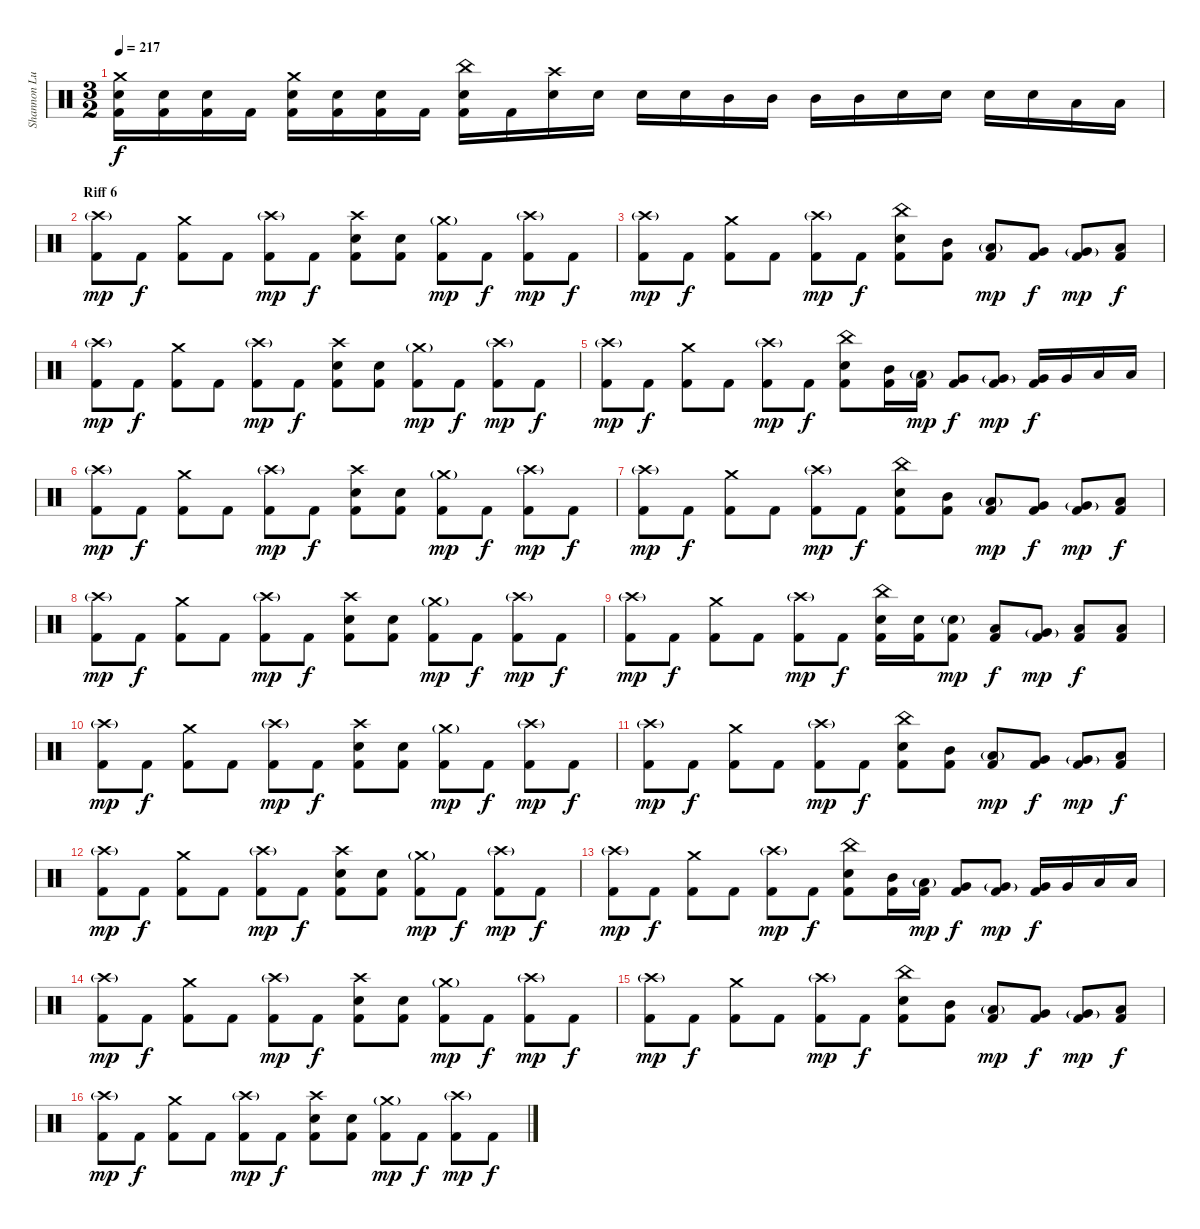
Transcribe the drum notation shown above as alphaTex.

\track ("Shannon Lucas (Drums)" "Shannon Lu") {instrument percussion}
\staff {score}
\articulation defaults
\ts (3 2)
\tempo 217
\clef neutral
\ks c
("Crash medium (hit)" "Snare (hit) 2" "Kick (hit) 2").16{dy f} ("Snare (hit) 2" "Kick (hit) 2").16 ("Snare (hit) 2" "Kick (hit) 2").16 "Kick (hit) 2".16 ("Crash medium (hit)" "Snare (hit) 2" "Kick (hit) 2").16 ("Snare (hit) 2" "Kick (hit) 2").16 ("Snare (hit) 2" "Kick (hit) 2").16 "Kick (hit) 2".16 ("China (hit)" "Snare (hit) 2" "Kick (hit) 2").16 "Kick (hit) 2".16 ("Crash high (hit)" "Snare (hit) 2").16 "Snare (hit) 2".16 "Snare (hit) 2".16 "Snare (hit) 2".16 "Mid Tom (hit)".16 "Mid Tom (hit)".16 "Mid Tom (hit)".16 "Mid Tom (hit)".16 "Snare (hit) 2".16 "Snare (hit) 2".16 "Snare (hit) 2".16 "Snare (hit) 2".16 "Low Tom (hit)".16 "Low Tom (hit)".16 |
\section ("" "Riff 6")
("Crash high (hit)"{g} "Kick (hit) 2").8{dy mp} "Kick (hit) 2".8{dy f} ("Crash medium (hit)" "Kick (hit) 2").8 "Kick (hit) 2".8 ("Crash high (hit)"{g} "Kick (hit) 2").8{dy mp} "Kick (hit) 2".8{dy f} ("Crash high (hit)" "Snare (hit) 2" "Kick (hit) 2").8 ("Snare (hit) 2" "Kick (hit) 2").8 ("Crash medium (hit)"{g} "Kick (hit) 2").8{dy mp} "Kick (hit) 2".8{dy f} ("Crash high (hit)"{g} "Kick (hit) 2").8{dy mp} "Kick (hit) 2".8{dy f} |
("Crash high (hit)"{g} "Kick (hit) 2").8{dy mp} "Kick (hit) 2".8{dy f} ("Crash medium (hit)" "Kick (hit) 2").8 "Kick (hit) 2".8 ("Crash high (hit)"{g} "Kick (hit) 2").8{dy mp} "Kick (hit) 2".8{dy f} ("China (hit)" "Snare (hit) 2" "Kick (hit) 2").8 ("Mid Tom (hit)" "Kick (hit) 2").8 ("Low Tom (hit)"{g} "Kick (hit) 2").8{dy mp} ("Very Low Tom (hit)" "Kick (hit) 2").8{dy f} ("Very Low Tom (hit)"{g} "Kick (hit) 2").8{dy mp} ("Low Floor Tom (hit)" "Kick (hit) 2").8{dy f} |
("Crash high (hit)"{g} "Kick (hit) 2").8{dy mp} "Kick (hit) 2".8{dy f} ("Crash medium (hit)" "Kick (hit) 2").8 "Kick (hit) 2".8 ("Crash high (hit)"{g} "Kick (hit) 2").8{dy mp} "Kick (hit) 2".8{dy f} ("Crash high (hit)" "Snare (hit) 2" "Kick (hit) 2").8 ("Snare (hit) 2" "Kick (hit) 2").8 ("Crash medium (hit)"{g} "Kick (hit) 2").8{dy mp} "Kick (hit) 2".8{dy f} ("Crash high (hit)"{g} "Kick (hit) 2").8{dy mp} "Kick (hit) 2".8{dy f} |
("Crash high (hit)"{g} "Kick (hit) 2").8{dy mp} "Kick (hit) 2".8{dy f} ("Crash medium (hit)" "Kick (hit) 2").8 "Kick (hit) 2".8 ("Crash high (hit)"{g} "Kick (hit) 2").8{dy mp} "Kick (hit) 2".8{dy f} ("China (hit)" "Snare (hit) 2" "Kick (hit) 2").8 ("Mid Tom (hit)" "Kick (hit) 2").16 ("Low Tom (hit)"{g} "Kick (hit) 2").16{dy mp} ("Very Low Tom (hit)" "Kick (hit) 2").8{dy f} ("Very Low Tom (hit)"{g} "Kick (hit) 2").8{dy mp} ("Very Low Tom (hit)" "Kick (hit) 2").16{dy f} "Very Low Tom (hit)".16 "Low Floor Tom (hit)".16 "Low Floor Tom (hit)".16 |
("Crash high (hit)"{g} "Kick (hit) 2").8{dy mp} "Kick (hit) 2".8{dy f} ("Crash medium (hit)" "Kick (hit) 2").8 "Kick (hit) 2".8 ("Crash high (hit)"{g} "Kick (hit) 2").8{dy mp} "Kick (hit) 2".8{dy f} ("Crash high (hit)" "Snare (hit) 2" "Kick (hit) 2").8 ("Snare (hit) 2" "Kick (hit) 2").8 ("Crash medium (hit)"{g} "Kick (hit) 2").8{dy mp} "Kick (hit) 2".8{dy f} ("Crash high (hit)"{g} "Kick (hit) 2").8{dy mp} "Kick (hit) 2".8{dy f} |
("Crash high (hit)"{g} "Kick (hit) 2").8{dy mp} "Kick (hit) 2".8{dy f} ("Crash medium (hit)" "Kick (hit) 2").8 "Kick (hit) 2".8 ("Crash high (hit)"{g} "Kick (hit) 2").8{dy mp} "Kick (hit) 2".8{dy f} ("China (hit)" "Snare (hit) 2" "Kick (hit) 2").8 ("Mid Tom (hit)" "Kick (hit) 2").8 ("Low Tom (hit)"{g} "Kick (hit) 2").8{dy mp} ("Very Low Tom (hit)" "Kick (hit) 2").8{dy f} ("Very Low Tom (hit)"{g} "Kick (hit) 2").8{dy mp} ("Low Floor Tom (hit)" "Kick (hit) 2").8{dy f} |
("Crash high (hit)"{g} "Kick (hit) 2").8{dy mp} "Kick (hit) 2".8{dy f} ("Crash medium (hit)" "Kick (hit) 2").8 "Kick (hit) 2".8 ("Crash high (hit)"{g} "Kick (hit) 2").8{dy mp} "Kick (hit) 2".8{dy f} ("Crash high (hit)" "Snare (hit) 2" "Kick (hit) 2").8 ("Snare (hit) 2" "Kick (hit) 2").8 ("Crash medium (hit)"{g} "Kick (hit) 2").8{dy mp} "Kick (hit) 2".8{dy f} ("Crash high (hit)"{g} "Kick (hit) 2").8{dy mp} "Kick (hit) 2".8{dy f} |
("Crash high (hit)"{g} "Kick (hit) 2").8{dy mp} "Kick (hit) 2".8{dy f} ("Crash medium (hit)" "Kick (hit) 2").8 "Kick (hit) 2".8 ("Crash high (hit)"{g} "Kick (hit) 2").8{dy mp} "Kick (hit) 2".8{dy f} ("China (hit)" "Snare (hit) 2" "Kick (hit) 2").16 ("Snare (hit) 2" "Kick (hit) 2").16 ("Snare (hit) 2"{g} "Kick (hit) 2").8{dy mp} ("Low Tom (hit)" "Kick (hit) 2").8{dy f} ("Very Low Tom (hit)"{g} "Kick (hit) 2").8{dy mp} ("Low Floor Tom (hit)" "Kick (hit) 2").8{dy f} ("Low Floor Tom (hit)" "Kick (hit) 2").8 |
("Crash high (hit)"{g} "Kick (hit) 2").8{dy mp} "Kick (hit) 2".8{dy f} ("Crash medium (hit)" "Kick (hit) 2").8 "Kick (hit) 2".8 ("Crash high (hit)"{g} "Kick (hit) 2").8{dy mp} "Kick (hit) 2".8{dy f} ("Crash high (hit)" "Snare (hit) 2" "Kick (hit) 2").8 ("Snare (hit) 2" "Kick (hit) 2").8 ("Crash medium (hit)"{g} "Kick (hit) 2").8{dy mp} "Kick (hit) 2".8{dy f} ("Crash high (hit)"{g} "Kick (hit) 2").8{dy mp} "Kick (hit) 2".8{dy f} |
("Crash high (hit)"{g} "Kick (hit) 2").8{dy mp} "Kick (hit) 2".8{dy f} ("Crash medium (hit)" "Kick (hit) 2").8 "Kick (hit) 2".8 ("Crash high (hit)"{g} "Kick (hit) 2").8{dy mp} "Kick (hit) 2".8{dy f} ("China (hit)" "Snare (hit) 2" "Kick (hit) 2").8 ("Mid Tom (hit)" "Kick (hit) 2").8 ("Low Tom (hit)"{g} "Kick (hit) 2").8{dy mp} ("Very Low Tom (hit)" "Kick (hit) 2").8{dy f} ("Very Low Tom (hit)"{g} "Kick (hit) 2").8{dy mp} ("Low Floor Tom (hit)" "Kick (hit) 2").8{dy f} |
("Crash high (hit)"{g} "Kick (hit) 2").8{dy mp} "Kick (hit) 2".8{dy f} ("Crash medium (hit)" "Kick (hit) 2").8 "Kick (hit) 2".8 ("Crash high (hit)"{g} "Kick (hit) 2").8{dy mp} "Kick (hit) 2".8{dy f} ("Crash high (hit)" "Snare (hit) 2" "Kick (hit) 2").8 ("Snare (hit) 2" "Kick (hit) 2").8 ("Crash medium (hit)"{g} "Kick (hit) 2").8{dy mp} "Kick (hit) 2".8{dy f} ("Crash high (hit)"{g} "Kick (hit) 2").8{dy mp} "Kick (hit) 2".8{dy f} |
("Crash high (hit)"{g} "Kick (hit) 2").8{dy mp} "Kick (hit) 2".8{dy f} ("Crash medium (hit)" "Kick (hit) 2").8 "Kick (hit) 2".8 ("Crash high (hit)"{g} "Kick (hit) 2").8{dy mp} "Kick (hit) 2".8{dy f} ("China (hit)" "Snare (hit) 2" "Kick (hit) 2").8 ("Mid Tom (hit)" "Kick (hit) 2").16 ("Low Tom (hit)"{g} "Kick (hit) 2").16{dy mp} ("Very Low Tom (hit)" "Kick (hit) 2").8{dy f} ("Very Low Tom (hit)"{g} "Kick (hit) 2").8{dy mp} ("Very Low Tom (hit)" "Kick (hit) 2").16{dy f} "Very Low Tom (hit)".16 "Low Floor Tom (hit)".16 "Low Floor Tom (hit)".16 |
("Crash high (hit)"{g} "Kick (hit) 2").8{dy mp} "Kick (hit) 2".8{dy f} ("Crash medium (hit)" "Kick (hit) 2").8 "Kick (hit) 2".8 ("Crash high (hit)"{g} "Kick (hit) 2").8{dy mp} "Kick (hit) 2".8{dy f} ("Crash high (hit)" "Snare (hit) 2" "Kick (hit) 2").8 ("Snare (hit) 2" "Kick (hit) 2").8 ("Crash medium (hit)"{g} "Kick (hit) 2").8{dy mp} "Kick (hit) 2".8{dy f} ("Crash high (hit)"{g} "Kick (hit) 2").8{dy mp} "Kick (hit) 2".8{dy f} |
("Crash high (hit)"{g} "Kick (hit) 2").8{dy mp} "Kick (hit) 2".8{dy f} ("Crash medium (hit)" "Kick (hit) 2").8 "Kick (hit) 2".8 ("Crash high (hit)"{g} "Kick (hit) 2").8{dy mp} "Kick (hit) 2".8{dy f} ("China (hit)" "Snare (hit) 2" "Kick (hit) 2").8 ("Mid Tom (hit)" "Kick (hit) 2").8 ("Low Tom (hit)"{g} "Kick (hit) 2").8{dy mp} ("Very Low Tom (hit)" "Kick (hit) 2").8{dy f} ("Very Low Tom (hit)"{g} "Kick (hit) 2").8{dy mp} ("Low Floor Tom (hit)" "Kick (hit) 2").8{dy f} |
("Crash high (hit)"{g} "Kick (hit) 2").8{dy mp} "Kick (hit) 2".8{dy f} ("Crash medium (hit)" "Kick (hit) 2").8 "Kick (hit) 2".8 ("Crash high (hit)"{g} "Kick (hit) 2").8{dy mp} "Kick (hit) 2".8{dy f} ("Crash high (hit)" "Snare (hit) 2" "Kick (hit) 2").8 ("Snare (hit) 2" "Kick (hit) 2").8 ("Crash medium (hit)"{g} "Kick (hit) 2").8{dy mp} "Kick (hit) 2".8{dy f} ("Crash high (hit)"{g} "Kick (hit) 2").8{dy mp} "Kick (hit) 2".8{dy f}
